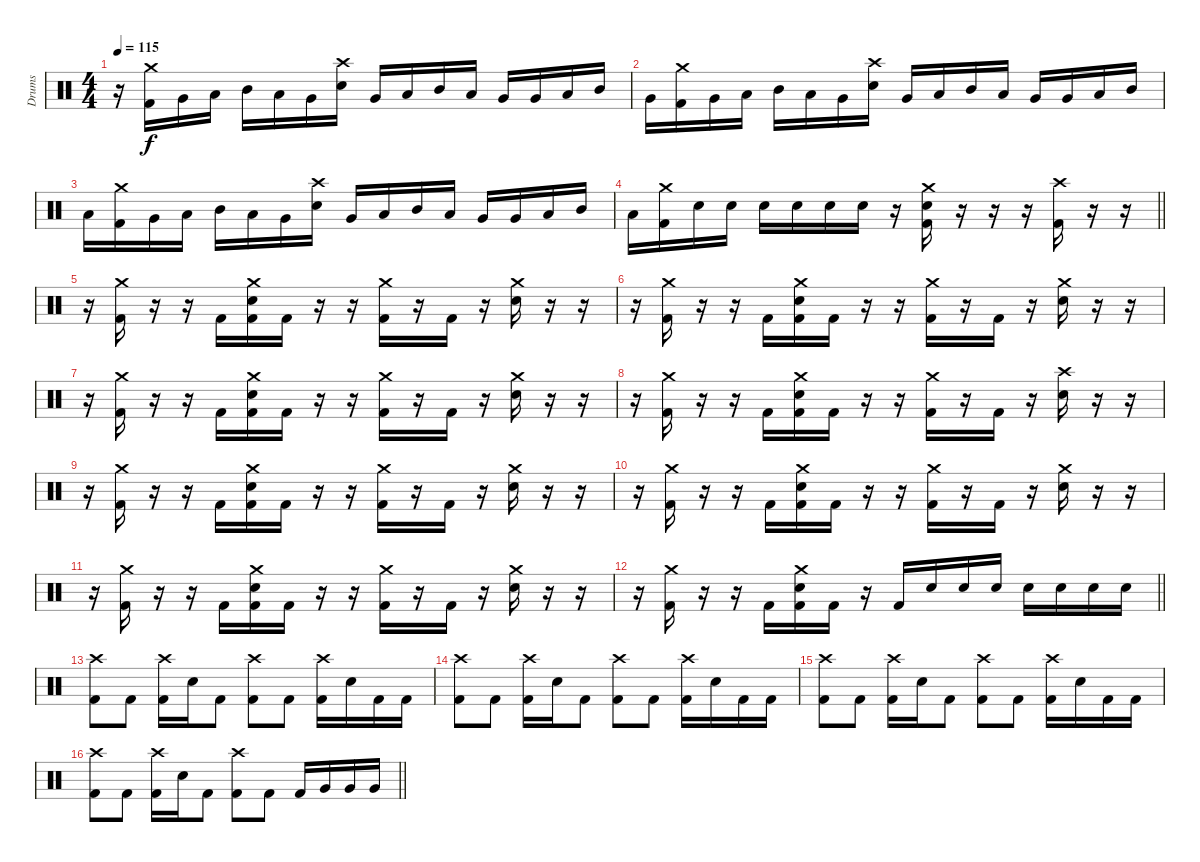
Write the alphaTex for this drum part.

\track ("Drums" "Drums") {instrument percussion}
\staff {score}
\articulation defaults
\ts (4 4)
\tempo 115
\clef neutral
\ks c
r.16{dy f} ("Crash medium (hit)" "Kick (hit) 2").16 "Very Low Tom (hit)".16 "Low Tom (hit)".16 "Mid Tom (hit)".16 "Low Tom (hit)".16 "Very Low Tom (hit)".16 ("Crash high (hit)" "Snare (hit) 2").16 "Very Low Tom (hit)".16 "Low Tom (hit)".16 "Mid Tom (hit)".16 "Low Tom (hit)".16 "Very Low Tom (hit)".16 "Very Low Tom (hit)".16 "Low Tom (hit)".16 "Mid Tom (hit)".16 |
"Very Low Tom (hit)".16 ("Crash medium (hit)" "Kick (hit) 2").16 "Very Low Tom (hit)".16 "Low Tom (hit)".16 "Mid Tom (hit)".16 "Low Tom (hit)".16 "Very Low Tom (hit)".16 ("Crash high (hit)" "Snare (hit) 2").16 "Very Low Tom (hit)".16 "Low Tom (hit)".16 "Mid Tom (hit)".16 "Low Tom (hit)".16 "Very Low Tom (hit)".16 "Very Low Tom (hit)".16 "Low Tom (hit)".16 "Mid Tom (hit)".16 |
"Low Tom (hit)".16 ("Crash medium (hit)" "Kick (hit) 2").16 "Very Low Tom (hit)".16 "Low Tom (hit)".16 "Mid Tom (hit)".16 "Low Tom (hit)".16 "Very Low Tom (hit)".16 ("Crash high (hit)" "Snare (hit) 2").16 "Very Low Tom (hit)".16 "Low Tom (hit)".16 "Mid Tom (hit)".16 "Low Tom (hit)".16 "Very Low Tom (hit)".16 "Very Low Tom (hit)".16 "Low Tom (hit)".16 "Mid Tom (hit)".16 |
\barLineRight lightlight "Low Tom (hit)".16
("Crash medium (hit)" "Kick (hit) 2").16 "Snare (hit) 2".16 "Snare (hit) 2".16 "Snare (hit) 2".16 "Snare (hit) 2".16 "Snare (hit) 2".16 "Snare (hit) 2".16 r.16 ("Crash medium (hit)" "Snare (hit) 2" "Kick (hit) 2").16 r.16 r.16 r.16 ("Crash high (hit)" "Kick (hit) 2").16 r.16 r.16 |
r.16 ("Crash medium (hit)" "Kick (hit) 2").16 r.16 r.16 "Kick (hit) 2".16 ("Crash medium (hit)" "Snare (hit) 2" "Kick (hit) 2").16 "Kick (hit) 2".16 r.16 r.16 ("Crash medium (hit)" "Kick (hit) 2").16 r.16 "Kick (hit) 2".16 r.16 ("Crash medium (hit)" "Snare (hit) 2").16 r.16 r.16 |
r.16 ("Crash medium (hit)" "Kick (hit) 2").16 r.16 r.16 "Kick (hit) 2".16 ("Crash medium (hit)" "Snare (hit) 2" "Kick (hit) 2").16 "Kick (hit) 2".16 r.16 r.16 ("Crash medium (hit)" "Kick (hit) 2").16 r.16 "Kick (hit) 2".16 r.16 ("Crash medium (hit)" "Snare (hit) 2").16 r.16 r.16 |
r.16 ("Crash medium (hit)" "Kick (hit) 2").16 r.16 r.16 "Kick (hit) 2".16 ("Crash medium (hit)" "Snare (hit) 2" "Kick (hit) 2").16 "Kick (hit) 2".16 r.16 r.16 ("Crash medium (hit)" "Kick (hit) 2").16 r.16 "Kick (hit) 2".16 r.16 ("Crash medium (hit)" "Snare (hit) 2").16 r.16 r.16 |
r.16 ("Crash medium (hit)" "Kick (hit) 2").16 r.16 r.16 "Kick (hit) 2".16 ("Crash medium (hit)" "Snare (hit) 2" "Kick (hit) 2").16 "Kick (hit) 2".16 r.16 r.16 ("Crash medium (hit)" "Kick (hit) 2").16 r.16 "Kick (hit) 2".16 r.16 ("Crash high (hit)" "Snare (hit) 2").16 r.16 r.16 |
r.16 ("Crash medium (hit)" "Kick (hit) 2").16 r.16 r.16 "Kick (hit) 2".16 ("Crash medium (hit)" "Snare (hit) 2" "Kick (hit) 2").16 "Kick (hit) 2".16 r.16 r.16 ("Crash medium (hit)" "Kick (hit) 2").16 r.16 "Kick (hit) 2".16 r.16 ("Crash medium (hit)" "Snare (hit) 2").16 r.16 r.16 |
r.16 ("Crash medium (hit)" "Kick (hit) 2").16 r.16 r.16 "Kick (hit) 2".16 ("Crash medium (hit)" "Snare (hit) 2" "Kick (hit) 2").16 "Kick (hit) 2".16 r.16 r.16 ("Crash medium (hit)" "Kick (hit) 2").16 r.16 "Kick (hit) 2".16 r.16 ("Crash medium (hit)" "Snare (hit) 2").16 r.16 r.16 |
r.16 ("Crash medium (hit)" "Kick (hit) 2").16 r.16 r.16 "Kick (hit) 2".16 ("Crash medium (hit)" "Snare (hit) 2" "Kick (hit) 2").16 "Kick (hit) 2".16 r.16 r.16 ("Crash medium (hit)" "Kick (hit) 2").16 r.16 "Kick (hit) 2".16 r.16 ("Crash medium (hit)" "Snare (hit) 2").16 r.16 r.16 |
\barLineRight lightlight
r.16 ("Crash medium (hit)" "Kick (hit) 2").16 r.16 r.16 "Kick (hit) 2".16 ("Crash medium (hit)" "Snare (hit) 2" "Kick (hit) 2").16 "Kick (hit) 2".16 r.16 "Kick (hit) 2".16 "Snare (hit) 2".16 "Snare (hit) 2".16 "Snare (hit) 2".16 "Snare (hit) 2".16 "Snare (hit) 2".16 "Snare (hit) 2".16 "Snare (hit) 2".16 |
("Crash high (hit)" "Kick (hit) 2").8 "Kick (hit) 2".8 ("Crash high (hit)" "Kick (hit) 2").16 "Snare (hit) 2".16 "Kick (hit) 2".8 ("Crash high (hit)" "Kick (hit) 2").8 "Kick (hit) 2".8 ("Crash high (hit)" "Kick (hit) 2").16 "Snare (hit) 2".16 "Kick (hit) 2".16 "Kick (hit) 2".16 |
("Crash high (hit)" "Kick (hit) 2").8 "Kick (hit) 2".8 ("Crash high (hit)" "Kick (hit) 2").16 "Snare (hit) 2".16 "Kick (hit) 2".8 ("Crash high (hit)" "Kick (hit) 2").8 "Kick (hit) 2".8 ("Crash high (hit)" "Kick (hit) 2").16 "Snare (hit) 2".16 "Kick (hit) 2".16 "Kick (hit) 2".16 |
("Crash high (hit)" "Kick (hit) 2").8 "Kick (hit) 2".8 ("Crash high (hit)" "Kick (hit) 2").16 "Snare (hit) 2".16 "Kick (hit) 2".8 ("Crash high (hit)" "Kick (hit) 2").8 "Kick (hit) 2".8 ("Crash high (hit)" "Kick (hit) 2").16 "Snare (hit) 2".16 "Kick (hit) 2".16 "Kick (hit) 2".16 |
\barLineRight lightlight
("Crash high (hit)" "Kick (hit) 2").8 "Kick (hit) 2".8 ("Crash high (hit)" "Kick (hit) 2").16 "Snare (hit) 2".16 "Kick (hit) 2".8 ("Crash high (hit)" "Kick (hit) 2").8 "Kick (hit) 2".8 "Kick (hit) 2".16 "Very Low Tom (hit)".16 "Very Low Tom (hit)".16 "Very Low Tom (hit)".16
